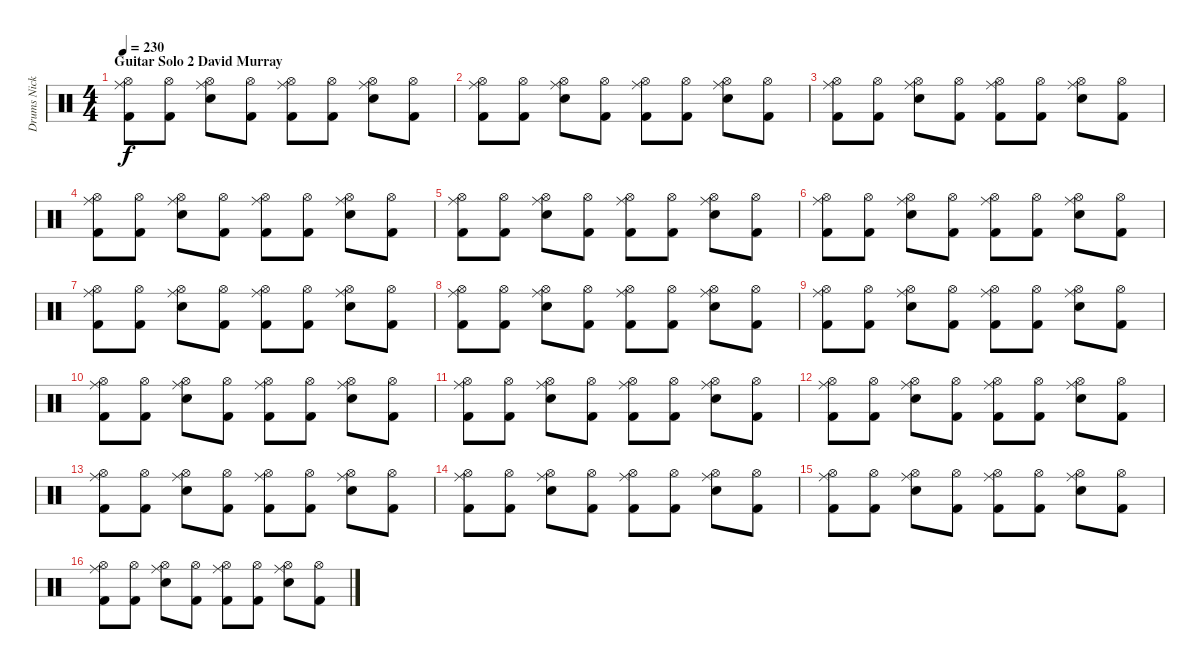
\track ("Drums Nicko McBrain" "Drums Nick") {instrument percussion}
\staff {score}
\articulation defaults
\ts (4 4)
\section ("" "Guitar Solo 2 David Murray")
\tempo 230
\clef neutral
\ks c
("Hi-Hat (open)" "Ride (middle)" "Kick (hit) 2").8{dy f} ("Hi-Hat (open)" "Kick (hit) 2").8 ("Hi-Hat (open)" "Ride (middle)" "Snare (hit) 2").8 ("Hi-Hat (open)" "Kick (hit) 2").8 ("Hi-Hat (open)" "Ride (middle)" "Kick (hit) 2").8 ("Hi-Hat (open)" "Kick (hit) 2").8 ("Hi-Hat (open)" "Ride (middle)" "Snare (hit) 2").8 ("Hi-Hat (open)" "Kick (hit) 2").8 |
("Hi-Hat (open)" "Ride (middle)" "Kick (hit) 2").8 ("Hi-Hat (open)" "Kick (hit) 2").8 ("Hi-Hat (open)" "Ride (middle)" "Snare (hit) 2").8 ("Hi-Hat (open)" "Kick (hit) 2").8 ("Hi-Hat (open)" "Ride (middle)" "Kick (hit) 2").8 ("Hi-Hat (open)" "Kick (hit) 2").8 ("Hi-Hat (open)" "Ride (middle)" "Snare (hit) 2").8 ("Hi-Hat (open)" "Kick (hit) 2").8 |
("Hi-Hat (open)" "Ride (middle)" "Kick (hit) 2").8 ("Hi-Hat (open)" "Kick (hit) 2").8 ("Hi-Hat (open)" "Ride (middle)" "Snare (hit) 2").8 ("Hi-Hat (open)" "Kick (hit) 2").8 ("Hi-Hat (open)" "Ride (middle)" "Kick (hit) 2").8 ("Hi-Hat (open)" "Kick (hit) 2").8 ("Hi-Hat (open)" "Ride (middle)" "Snare (hit) 2").8 ("Hi-Hat (open)" "Kick (hit) 2").8 |
("Hi-Hat (open)" "Ride (middle)" "Kick (hit) 2").8 ("Hi-Hat (open)" "Kick (hit) 2").8 ("Hi-Hat (open)" "Ride (middle)" "Snare (hit) 2").8 ("Hi-Hat (open)" "Kick (hit) 2").8 ("Hi-Hat (open)" "Ride (middle)" "Kick (hit) 2").8 ("Hi-Hat (open)" "Kick (hit) 2").8 ("Hi-Hat (open)" "Ride (middle)" "Snare (hit) 2").8 ("Hi-Hat (open)" "Kick (hit) 2").8 |
("Hi-Hat (open)" "Ride (middle)" "Kick (hit) 2").8 ("Hi-Hat (open)" "Kick (hit) 2").8 ("Hi-Hat (open)" "Ride (middle)" "Snare (hit) 2").8 ("Hi-Hat (open)" "Kick (hit) 2").8 ("Hi-Hat (open)" "Ride (middle)" "Kick (hit) 2").8 ("Hi-Hat (open)" "Kick (hit) 2").8 ("Hi-Hat (open)" "Ride (middle)" "Snare (hit) 2").8 ("Hi-Hat (open)" "Kick (hit) 2").8 |
("Hi-Hat (open)" "Ride (middle)" "Kick (hit) 2").8 ("Hi-Hat (open)" "Kick (hit) 2").8 ("Hi-Hat (open)" "Ride (middle)" "Snare (hit) 2").8 ("Hi-Hat (open)" "Kick (hit) 2").8 ("Hi-Hat (open)" "Ride (middle)" "Kick (hit) 2").8 ("Hi-Hat (open)" "Kick (hit) 2").8 ("Hi-Hat (open)" "Ride (middle)" "Snare (hit) 2").8 ("Hi-Hat (open)" "Kick (hit) 2").8 |
("Hi-Hat (open)" "Ride (middle)" "Kick (hit) 2").8 ("Hi-Hat (open)" "Kick (hit) 2").8 ("Hi-Hat (open)" "Ride (middle)" "Snare (hit) 2").8 ("Hi-Hat (open)" "Kick (hit) 2").8 ("Hi-Hat (open)" "Ride (middle)" "Kick (hit) 2").8 ("Hi-Hat (open)" "Kick (hit) 2").8 ("Hi-Hat (open)" "Ride (middle)" "Snare (hit) 2").8 ("Hi-Hat (open)" "Kick (hit) 2").8 |
("Hi-Hat (open)" "Ride (middle)" "Kick (hit) 2").8 ("Hi-Hat (open)" "Kick (hit) 2").8 ("Hi-Hat (open)" "Ride (middle)" "Snare (hit) 2").8 ("Hi-Hat (open)" "Kick (hit) 2").8 ("Hi-Hat (open)" "Ride (middle)" "Kick (hit) 2").8 ("Hi-Hat (open)" "Kick (hit) 2").8 ("Hi-Hat (open)" "Ride (middle)" "Snare (hit) 2").8 ("Hi-Hat (open)" "Kick (hit) 2").8 |
("Hi-Hat (open)" "Ride (middle)" "Kick (hit) 2").8 ("Hi-Hat (open)" "Kick (hit) 2").8 ("Hi-Hat (open)" "Ride (middle)" "Snare (hit) 2").8 ("Hi-Hat (open)" "Kick (hit) 2").8 ("Hi-Hat (open)" "Ride (middle)" "Kick (hit) 2").8 ("Hi-Hat (open)" "Kick (hit) 2").8 ("Hi-Hat (open)" "Ride (middle)" "Snare (hit) 2").8 ("Hi-Hat (open)" "Kick (hit) 2").8 |
("Hi-Hat (open)" "Ride (middle)" "Kick (hit) 2").8 ("Hi-Hat (open)" "Kick (hit) 2").8 ("Hi-Hat (open)" "Ride (middle)" "Snare (hit) 2").8 ("Hi-Hat (open)" "Kick (hit) 2").8 ("Hi-Hat (open)" "Ride (middle)" "Kick (hit) 2").8 ("Hi-Hat (open)" "Kick (hit) 2").8 ("Hi-Hat (open)" "Ride (middle)" "Snare (hit) 2").8 ("Hi-Hat (open)" "Kick (hit) 2").8 |
("Hi-Hat (open)" "Ride (middle)" "Kick (hit) 2").8 ("Hi-Hat (open)" "Kick (hit) 2").8 ("Hi-Hat (open)" "Ride (middle)" "Snare (hit) 2").8 ("Hi-Hat (open)" "Kick (hit) 2").8 ("Hi-Hat (open)" "Ride (middle)" "Kick (hit) 2").8 ("Hi-Hat (open)" "Kick (hit) 2").8 ("Hi-Hat (open)" "Ride (middle)" "Snare (hit) 2").8 ("Hi-Hat (open)" "Kick (hit) 2").8 |
("Hi-Hat (open)" "Ride (middle)" "Kick (hit) 2").8 ("Hi-Hat (open)" "Kick (hit) 2").8 ("Hi-Hat (open)" "Ride (middle)" "Snare (hit) 2").8 ("Hi-Hat (open)" "Kick (hit) 2").8 ("Hi-Hat (open)" "Ride (middle)" "Kick (hit) 2").8 ("Hi-Hat (open)" "Kick (hit) 2").8 ("Hi-Hat (open)" "Ride (middle)" "Snare (hit) 2").8 ("Hi-Hat (open)" "Kick (hit) 2").8 |
("Hi-Hat (open)" "Ride (middle)" "Kick (hit) 2").8 ("Hi-Hat (open)" "Kick (hit) 2").8 ("Hi-Hat (open)" "Ride (middle)" "Snare (hit) 2").8 ("Hi-Hat (open)" "Kick (hit) 2").8 ("Hi-Hat (open)" "Ride (middle)" "Kick (hit) 2").8 ("Hi-Hat (open)" "Kick (hit) 2").8 ("Hi-Hat (open)" "Ride (middle)" "Snare (hit) 2").8 ("Hi-Hat (open)" "Kick (hit) 2").8 |
("Hi-Hat (open)" "Ride (middle)" "Kick (hit) 2").8 ("Hi-Hat (open)" "Kick (hit) 2").8 ("Hi-Hat (open)" "Ride (middle)" "Snare (hit) 2").8 ("Hi-Hat (open)" "Kick (hit) 2").8 ("Hi-Hat (open)" "Ride (middle)" "Kick (hit) 2").8 ("Hi-Hat (open)" "Kick (hit) 2").8 ("Hi-Hat (open)" "Ride (middle)" "Snare (hit) 2").8 ("Hi-Hat (open)" "Kick (hit) 2").8 |
("Hi-Hat (open)" "Ride (middle)" "Kick (hit) 2").8 ("Hi-Hat (open)" "Kick (hit) 2").8 ("Hi-Hat (open)" "Ride (middle)" "Snare (hit) 2").8 ("Hi-Hat (open)" "Kick (hit) 2").8 ("Hi-Hat (open)" "Ride (middle)" "Kick (hit) 2").8 ("Hi-Hat (open)" "Kick (hit) 2").8 ("Hi-Hat (open)" "Ride (middle)" "Snare (hit) 2").8 ("Hi-Hat (open)" "Kick (hit) 2").8 |
("Hi-Hat (open)" "Ride (middle)" "Kick (hit) 2").8 ("Hi-Hat (open)" "Kick (hit) 2").8 ("Hi-Hat (open)" "Ride (middle)" "Snare (hit) 2").8 ("Hi-Hat (open)" "Kick (hit) 2").8 ("Hi-Hat (open)" "Ride (middle)" "Kick (hit) 2").8 ("Hi-Hat (open)" "Kick (hit) 2").8 ("Hi-Hat (open)" "Ride (middle)" "Snare (hit) 2").8 ("Hi-Hat (open)" "Kick (hit) 2").8
